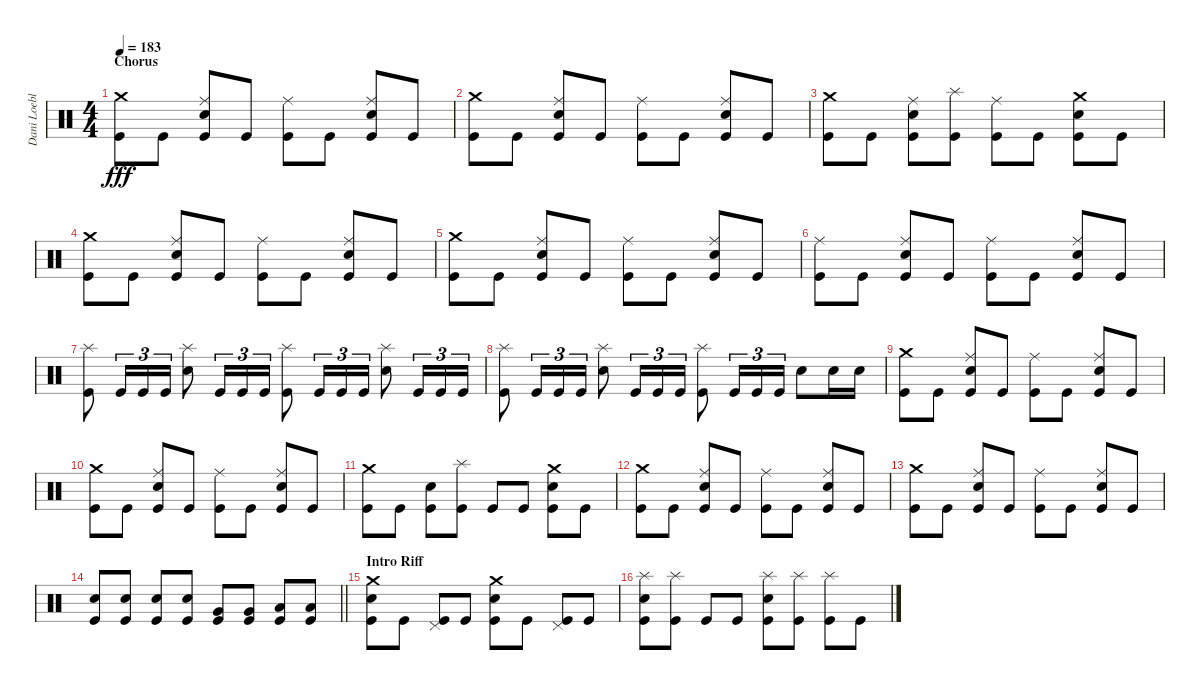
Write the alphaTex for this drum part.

\track ("Dani Loeble" "Dani Loebl") {instrument percussion}
\staff {score}
\articulation defaults
\ts (4 4)
\section ("" "Chorus")
\tempo 183
\clef neutral
\ks c
("Crash medium (hit)" "Kick (hit)").8{dy fff} "Kick (hit)".8 ("Ride (middle)" "Electric Snare (hit)" "Kick (hit)").8 "Kick (hit)".8 ("Ride (middle)" "Kick (hit)").8 "Kick (hit)".8 ("Ride (middle)" "Electric Snare (hit)" "Kick (hit)").8 "Kick (hit)".8 |
("Crash medium (hit)" "Kick (hit)").8 "Kick (hit)".8 ("Ride (middle)" "Electric Snare (hit)" "Kick (hit)").8 "Kick (hit)".8 ("Ride (middle)" "Kick (hit)").8 "Kick (hit)".8 ("Ride (middle)" "Electric Snare (hit)" "Kick (hit)").8 "Kick (hit)".8 |
("Crash medium (hit)" "Kick (hit)").8 "Kick (hit)".8 ("Ride (middle)" "Electric Snare (hit)" "Kick (hit)").8 ("Splash (hit)" "Kick (hit)").8 ("Ride (middle)" "Kick (hit)").8 "Kick (hit)".8 ("Crash medium (hit)" "Electric Snare (hit)" "Kick (hit)").8 "Kick (hit)".8 |
("Crash medium (hit)" "Kick (hit)").8 "Kick (hit)".8 ("Ride (middle)" "Electric Snare (hit)" "Kick (hit)").8 "Kick (hit)".8 ("Ride (middle)" "Kick (hit)").8 "Kick (hit)".8 ("Ride (middle)" "Electric Snare (hit)" "Kick (hit)").8 "Kick (hit)".8 |
("Crash medium (hit)" "Kick (hit)").8 "Kick (hit)".8 ("Ride (middle)" "Electric Snare (hit)" "Kick (hit)").8 "Kick (hit)".8 ("Ride (middle)" "Kick (hit)").8 "Kick (hit)".8 ("Ride (middle)" "Electric Snare (hit)" "Kick (hit)").8 "Kick (hit)".8 |
("Ride (middle)" "Kick (hit)").8 "Kick (hit)".8 ("Ride (middle)" "Electric Snare (hit)" "Kick (hit)").8 "Kick (hit)".8 ("Ride (middle)" "Kick (hit)").8 "Kick (hit)".8 ("Ride (middle)" "Electric Snare (hit)" "Kick (hit)").8 "Kick (hit)".8 |
("Splash (hit)" "Kick (hit)").8 "Kick (hit)".16{tu (3 2)} "Kick (hit)".16{tu (3 2)} "Kick (hit)".16{tu (3 2)} ("Splash (hit)" "Electric Snare (hit)").8 "Kick (hit)".16{tu (3 2)} "Kick (hit)".16{tu (3 2)} "Kick (hit)".16{tu (3 2)} ("Splash (hit)" "Kick (hit)").8 "Kick (hit)".16{tu (3 2)} "Kick (hit)".16{tu (3 2)} "Kick (hit)".16{tu (3 2)} ("Splash (hit)" "Electric Snare (hit)").8 "Kick (hit)".16{tu (3 2)} "Kick (hit)".16{tu (3 2)} "Kick (hit)".16{tu (3 2)} |
("Splash (hit)" "Kick (hit)").8 "Kick (hit)".16{tu (3 2)} "Kick (hit)".16{tu (3 2)} "Kick (hit)".16{tu (3 2)} ("Splash (hit)" "Electric Snare (hit)").8 "Kick (hit)".16{tu (3 2)} "Kick (hit)".16{tu (3 2)} "Kick (hit)".16{tu (3 2)} ("Splash (hit)" "Kick (hit)").8 "Kick (hit)".16{tu (3 2)} "Kick (hit)".16{tu (3 2)} "Kick (hit)".16{tu (3 2)} "Electric Snare (hit)".8 "Electric Snare (hit)".16 "Electric Snare (hit)".16 |
("Crash medium (hit)" "Kick (hit)").8 "Kick (hit)".8 ("Ride (middle)" "Electric Snare (hit)" "Kick (hit)").8 "Kick (hit)".8 ("Ride (middle)" "Kick (hit)").8 "Kick (hit)".8 ("Ride (middle)" "Electric Snare (hit)" "Kick (hit)").8 "Kick (hit)".8 |
("Crash medium (hit)" "Kick (hit)").8 "Kick (hit)".8 ("Ride (middle)" "Electric Snare (hit)" "Kick (hit)").8 "Kick (hit)".8 ("Ride (middle)" "Kick (hit)").8 "Kick (hit)".8 ("Ride (middle)" "Electric Snare (hit)" "Kick (hit)").8 "Kick (hit)".8 |
("Crash medium (hit)" "Kick (hit)").8 "Kick (hit)".8 ("Electric Snare (hit)" "Kick (hit)").8 ("Splash (hit)" "Kick (hit)").8 "Kick (hit)".8 "Kick (hit)".8 ("Crash medium (hit)" "Electric Snare (hit)" "Kick (hit)").8 "Kick (hit)".8 |
("Crash medium (hit)" "Kick (hit)").8 "Kick (hit)".8 ("Ride (middle)" "Electric Snare (hit)" "Kick (hit)").8 "Kick (hit)".8 ("Ride (middle)" "Kick (hit)").8 "Kick (hit)".8 ("Ride (middle)" "Electric Snare (hit)" "Kick (hit)").8 "Kick (hit)".8 |
("Crash medium (hit)" "Kick (hit)").8 "Kick (hit)".8 ("Ride (middle)" "Electric Snare (hit)" "Kick (hit)").8 "Kick (hit)".8 ("Ride (middle)" "Kick (hit)").8 "Kick (hit)".8 ("Ride (middle)" "Electric Snare (hit)" "Kick (hit)").8 "Kick (hit)".8 |
\barLineRight lightlight
("Electric Snare (hit)" "Kick (hit)").8 ("Electric Snare (hit)" "Kick (hit)").8 ("Electric Snare (hit)" "Kick (hit)").8 ("Electric Snare (hit)" "Kick (hit)").8 ("Very Low Tom (hit)" "Kick (hit)").8 ("Very Low Tom (hit)" "Kick (hit)").8 ("Low Floor Tom (hit)" "Kick (hit)").8 ("Low Floor Tom (hit)" "Kick (hit)").8 |
\section ("" "Intro Riff")
("Crash medium (hit)" "Electric Snare (hit)" "Kick (hit)").8 "Kick (hit)".8 ("Pedal Hi-Hat (hit)" "Kick (hit)").8 "Kick (hit)".8 ("Crash medium (hit)" "Electric Snare (hit)" "Kick (hit)").8 "Kick (hit)".8 ("Pedal Hi-Hat (hit)" "Kick (hit)").8 "Kick (hit)".8 |
("Splash (hit)" "Electric Snare (hit)" "Kick (hit)").8 ("Splash (hit)" "Kick (hit)").8 "Kick (hit)".8 "Kick (hit)".8 ("Splash (hit)" "Electric Snare (hit)" "Kick (hit)").8 ("Splash (hit)" "Kick (hit)").8 ("Splash (hit)" "Kick (hit)").8 "Kick (hit)".8
